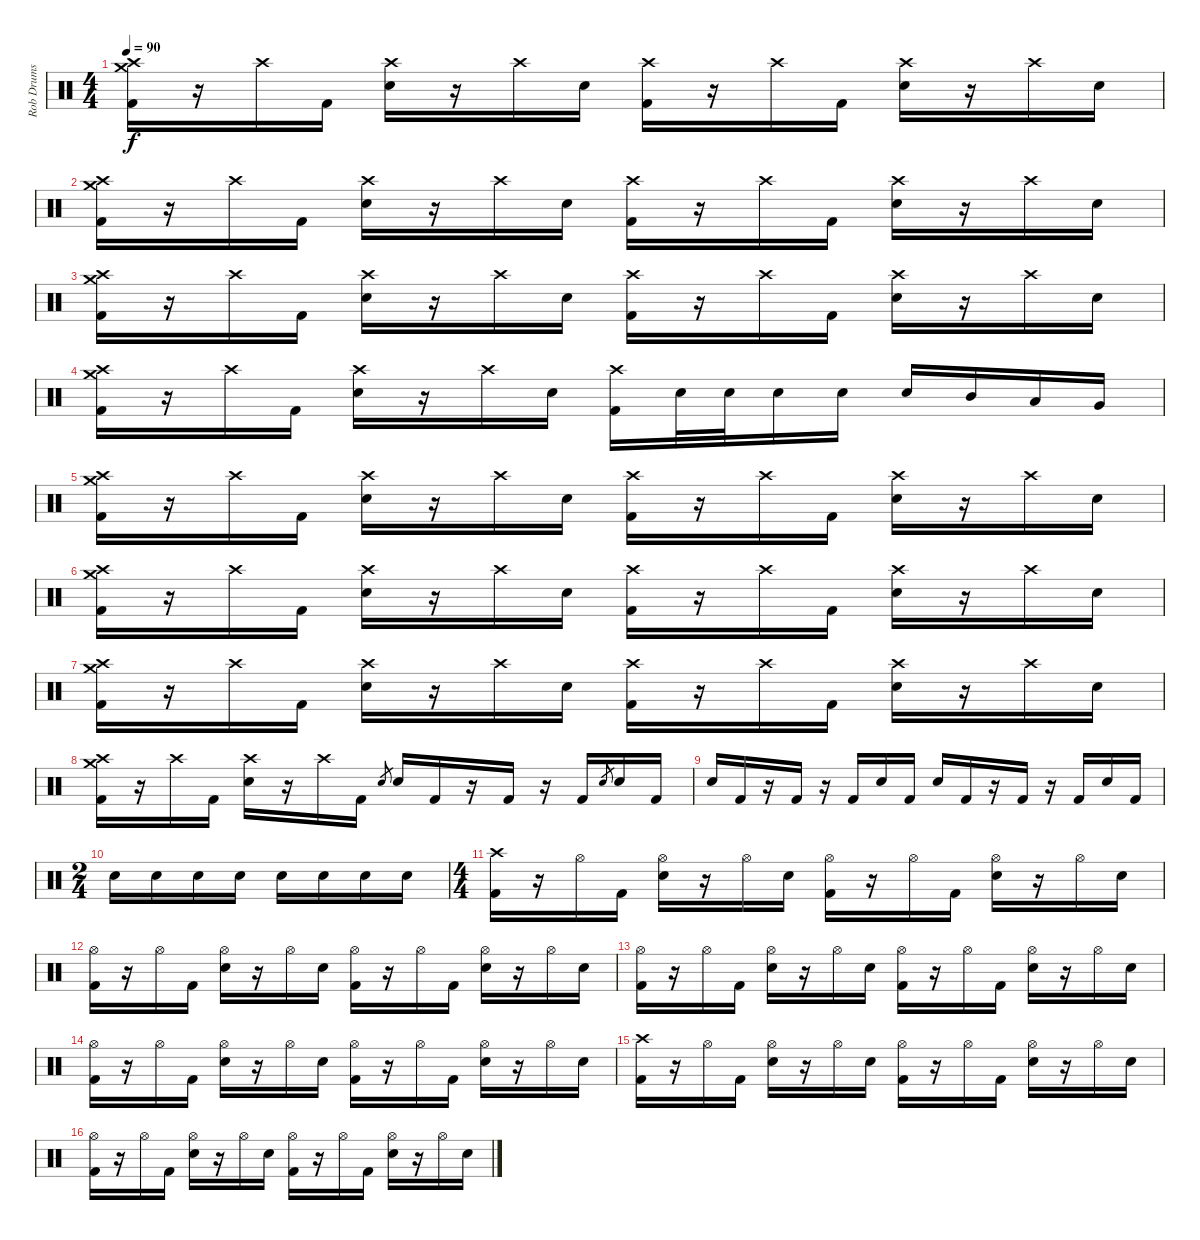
\track ("Rob Drums" "Rob Drums") {instrument percussion}
\staff {score}
\articulation defaults
\ts (4 4)
\tempo 90
\clef neutral
\ks c
("Crash high (hit)" "Crash medium (hit)" "Kick (hit) 2").16{dy f} r.16 "Crash high (hit)".16 "Kick (hit) 2".16 ("Crash high (hit)" "Electric Snare (hit)").16 r.16 "Crash high (hit)".16 "Electric Snare (hit)".16 ("Crash high (hit)" "Kick (hit) 2").16 r.16 "Crash high (hit)".16 "Kick (hit) 2".16 ("Crash high (hit)" "Electric Snare (hit)").16 r.16 "Crash high (hit)".16 "Electric Snare (hit)".16 |
("Crash high (hit)" "Crash medium (hit)" "Kick (hit) 2").16 r.16 "Crash high (hit)".16 "Kick (hit) 2".16 ("Crash high (hit)" "Electric Snare (hit)").16 r.16 "Crash high (hit)".16 "Electric Snare (hit)".16 ("Crash high (hit)" "Kick (hit) 2").16 r.16 "Crash high (hit)".16 "Kick (hit) 2".16 ("Crash high (hit)" "Electric Snare (hit)").16 r.16 "Crash high (hit)".16 "Electric Snare (hit)".16 |
("Crash high (hit)" "Crash medium (hit)" "Kick (hit) 2").16 r.16 "Crash high (hit)".16 "Kick (hit) 2".16 ("Crash high (hit)" "Electric Snare (hit)").16 r.16 "Crash high (hit)".16 "Electric Snare (hit)".16 ("Crash high (hit)" "Kick (hit) 2").16 r.16 "Crash high (hit)".16 "Kick (hit) 2".16 ("Crash high (hit)" "Electric Snare (hit)").16 r.16 "Crash high (hit)".16 "Electric Snare (hit)".16 |
("Crash high (hit)" "Crash medium (hit)" "Kick (hit) 2").16 r.16 "Crash high (hit)".16 "Kick (hit) 2".16 ("Crash high (hit)" "Electric Snare (hit)").16 r.16 "Crash high (hit)".16 "Electric Snare (hit)".16 ("Crash high (hit)" "Kick (hit) 2").16 "Electric Snare (hit)".32 "Electric Snare (hit)".32 "Electric Snare (hit)".16 "Electric Snare (hit)".16 "Electric Snare (hit)".16 "Mid Tom (hit)".16 "Low Tom (hit)".16 "Very Low Tom (hit)".16 |
("Crash high (hit)" "Crash medium (hit)" "Kick (hit) 2").16 r.16 "Crash high (hit)".16 "Kick (hit) 2".16 ("Crash high (hit)" "Electric Snare (hit)").16 r.16 "Crash high (hit)".16 "Electric Snare (hit)".16 ("Crash high (hit)" "Kick (hit) 2").16 r.16 "Crash high (hit)".16 "Kick (hit) 2".16 ("Crash high (hit)" "Electric Snare (hit)").16 r.16 "Crash high (hit)".16 "Electric Snare (hit)".16 |
("Crash high (hit)" "Crash medium (hit)" "Kick (hit) 2").16 r.16 "Crash high (hit)".16 "Kick (hit) 2".16 ("Crash high (hit)" "Electric Snare (hit)").16 r.16 "Crash high (hit)".16 "Electric Snare (hit)".16 ("Crash high (hit)" "Kick (hit) 2").16 r.16 "Crash high (hit)".16 "Kick (hit) 2".16 ("Crash high (hit)" "Electric Snare (hit)").16 r.16 "Crash high (hit)".16 "Electric Snare (hit)".16 |
("Crash high (hit)" "Crash medium (hit)" "Kick (hit) 2").16 r.16 "Crash high (hit)".16 "Kick (hit) 2".16 ("Crash high (hit)" "Electric Snare (hit)").16 r.16 "Crash high (hit)".16 "Electric Snare (hit)".16 ("Crash high (hit)" "Kick (hit) 2").16 r.16 "Crash high (hit)".16 "Kick (hit) 2".16 ("Crash high (hit)" "Electric Snare (hit)").16 r.16 "Crash high (hit)".16 "Electric Snare (hit)".16 |
("Crash high (hit)" "Crash medium (hit)" "Kick (hit) 2").16 r.16 "Crash high (hit)".16 "Kick (hit) 2".16 ("Crash high (hit)" "Electric Snare (hit)").16 r.16 "Crash high (hit)".16 "Kick (hit) 2".16 "Electric Snare (hit)".8{gr} "Electric Snare (hit)".16 "Kick (hit) 2".16 r.16 "Kick (hit) 2".16 r.16 "Kick (hit) 2".16 "Electric Snare (hit)".8{gr} "Electric Snare (hit)".16 "Kick (hit) 2".16 |
"Electric Snare (hit)".16 "Kick (hit) 2".16 r.16 "Kick (hit) 2".16 r.16 "Kick (hit) 2".16 "Electric Snare (hit)".16 "Kick (hit) 2".16 "Electric Snare (hit)".16 "Kick (hit) 2".16 r.16 "Kick (hit) 2".16 r.16 "Kick (hit) 2".16 "Electric Snare (hit)".16 "Kick (hit) 2".16 |
\ts (2 4)
"Electric Snare (hit)".16 "Electric Snare (hit)".16 "Electric Snare (hit)".16 "Electric Snare (hit)".16 "Electric Snare (hit)".16 "Electric Snare (hit)".16 "Electric Snare (hit)".16 "Electric Snare (hit)".16 |
\ts (4 4)
("Crash high (hit)" "Kick (hit) 2").16 r.16 "Hi-Hat (open)".16 "Kick (hit) 2".16 ("Hi-Hat (open)" "Electric Snare (hit)").16 r.16 "Hi-Hat (open)".16 "Electric Snare (hit)".16 ("Hi-Hat (open)" "Kick (hit) 2").16 r.16 "Hi-Hat (open)".16 "Kick (hit) 2".16 ("Hi-Hat (open)" "Electric Snare (hit)").16 r.16 "Hi-Hat (open)".16 "Electric Snare (hit)".16 |
("Hi-Hat (open)" "Kick (hit) 2").16 r.16 "Hi-Hat (open)".16 "Kick (hit) 2".16 ("Hi-Hat (open)" "Electric Snare (hit)").16 r.16 "Hi-Hat (open)".16 "Electric Snare (hit)".16 ("Hi-Hat (open)" "Kick (hit) 2").16 r.16 "Hi-Hat (open)".16 "Kick (hit) 2".16 ("Hi-Hat (open)" "Electric Snare (hit)").16 r.16 "Hi-Hat (open)".16 "Electric Snare (hit)".16 |
("Hi-Hat (open)" "Kick (hit) 2").16 r.16 "Hi-Hat (open)".16 "Kick (hit) 2".16 ("Hi-Hat (open)" "Electric Snare (hit)").16 r.16 "Hi-Hat (open)".16 "Electric Snare (hit)".16 ("Hi-Hat (open)" "Kick (hit) 2").16 r.16 "Hi-Hat (open)".16 "Kick (hit) 2".16 ("Hi-Hat (open)" "Electric Snare (hit)").16 r.16 "Hi-Hat (open)".16 "Electric Snare (hit)".16 |
("Hi-Hat (open)" "Kick (hit) 2").16 r.16 "Hi-Hat (open)".16 "Kick (hit) 2".16 ("Hi-Hat (open)" "Electric Snare (hit)").16 r.16 "Hi-Hat (open)".16 "Electric Snare (hit)".16 ("Hi-Hat (open)" "Kick (hit) 2").16 r.16 "Hi-Hat (open)".16 "Kick (hit) 2".16 ("Hi-Hat (open)" "Electric Snare (hit)").16 r.16 "Hi-Hat (open)".16 "Electric Snare (hit)".16 |
("Crash high (hit)" "Kick (hit) 2").16 r.16 "Hi-Hat (open)".16 "Kick (hit) 2".16 ("Hi-Hat (open)" "Electric Snare (hit)").16 r.16 "Hi-Hat (open)".16 "Electric Snare (hit)".16 ("Hi-Hat (open)" "Kick (hit) 2").16 r.16 "Hi-Hat (open)".16 "Kick (hit) 2".16 ("Hi-Hat (open)" "Electric Snare (hit)").16 r.16 "Hi-Hat (open)".16 "Electric Snare (hit)".16 |
("Hi-Hat (open)" "Kick (hit) 2").16 r.16 "Hi-Hat (open)".16 "Kick (hit) 2".16 ("Hi-Hat (open)" "Electric Snare (hit)").16 r.16 "Hi-Hat (open)".16 "Electric Snare (hit)".16 ("Hi-Hat (open)" "Kick (hit) 2").16 r.16 "Hi-Hat (open)".16 "Kick (hit) 2".16 ("Hi-Hat (open)" "Electric Snare (hit)").16 r.16 "Hi-Hat (open)".16 "Electric Snare (hit)".16
